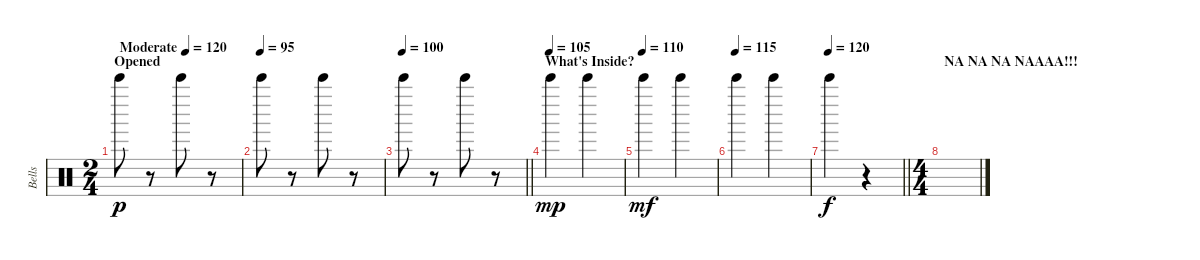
\track ("Bells" "Bells") {instrument percussion}
\staff {score}
\articulation defaults
\ts (2 4)
\section ("" "Opened")
\tempo (120 "Moderate")
\tempo 90
\tempo (120 "Moderate")
\clef neutral
\ks c "Bell Tree (hit)".8{dy p}
r.8 "Bell Tree (hit)".8 r.8 |
\tempo (95)
"Bell Tree (hit)".8 r.8 "Bell Tree (hit)".8 r.8 |
\tempo 100
\barLineRight lightlight "Bell Tree (hit)".8
r.8 "Bell Tree (hit)".8 r.8 |
\section ("" "What's Inside?")
\tempo (105)
"Bell Tree (hit)".4{dy mp} "Bell Tree (hit)".4 |
\tempo (110)
"Bell Tree (hit)".4{dy mf} "Bell Tree (hit)".4 |
\tempo (115)
"Bell Tree (hit)".4 "Bell Tree (hit)".4 |
\tempo 120
\barLineRight lightlight "Bell Tree (hit)".4{dy f}
r.4 |
\ts (4 4)
\section ("" "NA NA NA NAAAA!!!")
